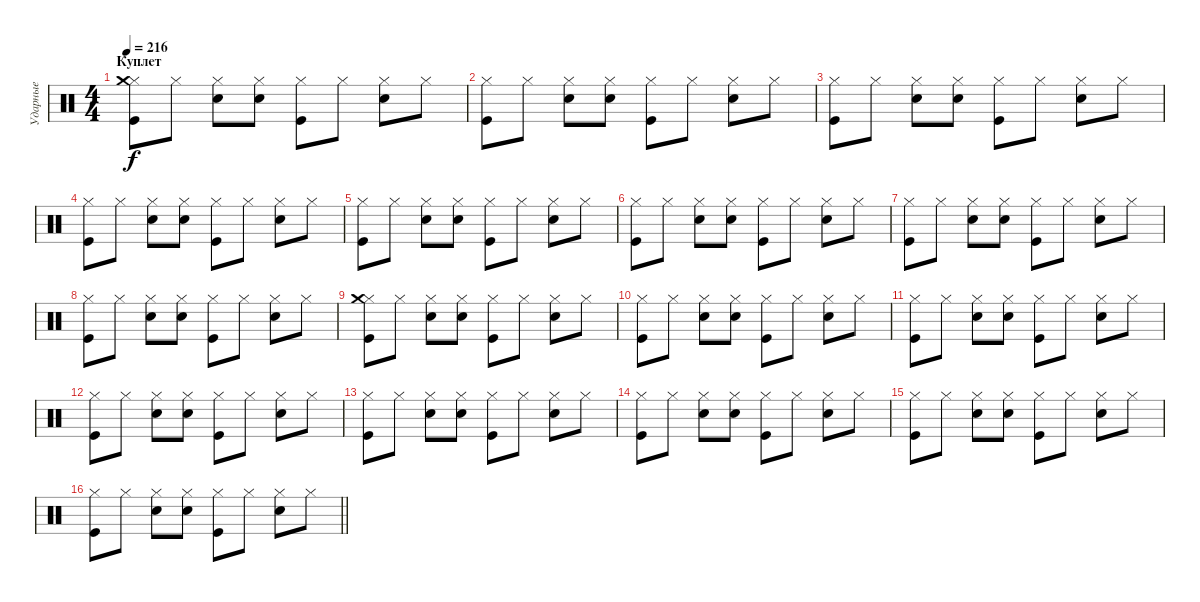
\track ("Ударные" "Ударные") {instrument percussion}
\staff {score}
\articulation defaults
\ts (4 4)
\section ("" "Куплет")
\tempo 216
\clef neutral
\ks c
("Hi-Hat (closed)" "Kick (hit)" "Crash medium (hit)").8{dy f} "Hi-Hat (closed)".8 ("Hi-Hat (closed)" "Snare (hit) 2").8 ("Hi-Hat (closed)" "Snare (hit) 2").8 ("Hi-Hat (closed)" "Kick (hit)").8 "Hi-Hat (closed)".8 ("Hi-Hat (closed)" "Snare (hit) 2").8 "Hi-Hat (closed)".8 |
("Hi-Hat (closed)" "Kick (hit)").8 "Hi-Hat (closed)".8 ("Hi-Hat (closed)" "Snare (hit) 2").8 ("Hi-Hat (closed)" "Snare (hit) 2").8 ("Hi-Hat (closed)" "Kick (hit)").8 "Hi-Hat (closed)".8 ("Hi-Hat (closed)" "Snare (hit) 2").8 "Hi-Hat (closed)".8 |
("Hi-Hat (closed)" "Kick (hit)").8 "Hi-Hat (closed)".8 ("Hi-Hat (closed)" "Snare (hit) 2").8 ("Hi-Hat (closed)" "Snare (hit) 2").8 ("Hi-Hat (closed)" "Kick (hit)").8 "Hi-Hat (closed)".8 ("Hi-Hat (closed)" "Snare (hit) 2").8 "Hi-Hat (closed)".8 |
("Hi-Hat (closed)" "Kick (hit)").8 "Hi-Hat (closed)".8 ("Hi-Hat (closed)" "Snare (hit) 2").8 ("Hi-Hat (closed)" "Snare (hit) 2").8 ("Hi-Hat (closed)" "Kick (hit)").8 "Hi-Hat (closed)".8 ("Hi-Hat (closed)" "Snare (hit) 2").8 "Hi-Hat (closed)".8 |
("Hi-Hat (closed)" "Kick (hit)").8 "Hi-Hat (closed)".8 ("Hi-Hat (closed)" "Snare (hit) 2").8 ("Hi-Hat (closed)" "Snare (hit) 2").8 ("Hi-Hat (closed)" "Kick (hit)").8 "Hi-Hat (closed)".8 ("Hi-Hat (closed)" "Snare (hit) 2").8 "Hi-Hat (closed)".8 |
("Hi-Hat (closed)" "Kick (hit)").8 "Hi-Hat (closed)".8 ("Hi-Hat (closed)" "Snare (hit) 2").8 ("Hi-Hat (closed)" "Snare (hit) 2").8 ("Hi-Hat (closed)" "Kick (hit)").8 "Hi-Hat (closed)".8 ("Hi-Hat (closed)" "Snare (hit) 2").8 "Hi-Hat (closed)".8 |
("Hi-Hat (closed)" "Kick (hit)").8 "Hi-Hat (closed)".8 ("Hi-Hat (closed)" "Snare (hit) 2").8 ("Hi-Hat (closed)" "Snare (hit) 2").8 ("Hi-Hat (closed)" "Kick (hit)").8 "Hi-Hat (closed)".8 ("Hi-Hat (closed)" "Snare (hit) 2").8 "Hi-Hat (closed)".8 |
("Hi-Hat (closed)" "Kick (hit)").8 "Hi-Hat (closed)".8 ("Hi-Hat (closed)" "Snare (hit) 2").8 ("Hi-Hat (closed)" "Snare (hit) 2").8 ("Hi-Hat (closed)" "Kick (hit)").8 "Hi-Hat (closed)".8 ("Hi-Hat (closed)" "Snare (hit) 2").8 "Hi-Hat (closed)".8 |
("Hi-Hat (closed)" "Kick (hit)" "Crash medium (hit)").8 "Hi-Hat (closed)".8 ("Hi-Hat (closed)" "Snare (hit) 2").8 ("Hi-Hat (closed)" "Snare (hit) 2").8 ("Hi-Hat (closed)" "Kick (hit)").8 "Hi-Hat (closed)".8 ("Hi-Hat (closed)" "Snare (hit) 2").8 "Hi-Hat (closed)".8 |
("Hi-Hat (closed)" "Kick (hit)").8 "Hi-Hat (closed)".8 ("Hi-Hat (closed)" "Snare (hit) 2").8 ("Hi-Hat (closed)" "Snare (hit) 2").8 ("Hi-Hat (closed)" "Kick (hit)").8 "Hi-Hat (closed)".8 ("Hi-Hat (closed)" "Snare (hit) 2").8 "Hi-Hat (closed)".8 |
("Hi-Hat (closed)" "Kick (hit)").8 "Hi-Hat (closed)".8 ("Hi-Hat (closed)" "Snare (hit) 2").8 ("Hi-Hat (closed)" "Snare (hit) 2").8 ("Hi-Hat (closed)" "Kick (hit)").8 "Hi-Hat (closed)".8 ("Hi-Hat (closed)" "Snare (hit) 2").8 "Hi-Hat (closed)".8 |
("Hi-Hat (closed)" "Kick (hit)").8 "Hi-Hat (closed)".8 ("Hi-Hat (closed)" "Snare (hit) 2").8 ("Hi-Hat (closed)" "Snare (hit) 2").8 ("Hi-Hat (closed)" "Kick (hit)").8 "Hi-Hat (closed)".8 ("Hi-Hat (closed)" "Snare (hit) 2").8 "Hi-Hat (closed)".8 |
("Hi-Hat (closed)" "Kick (hit)").8 "Hi-Hat (closed)".8 ("Hi-Hat (closed)" "Snare (hit) 2").8 ("Hi-Hat (closed)" "Snare (hit) 2").8 ("Hi-Hat (closed)" "Kick (hit)").8 "Hi-Hat (closed)".8 ("Hi-Hat (closed)" "Snare (hit) 2").8 "Hi-Hat (closed)".8 |
("Hi-Hat (closed)" "Kick (hit)").8 "Hi-Hat (closed)".8 ("Hi-Hat (closed)" "Snare (hit) 2").8 ("Hi-Hat (closed)" "Snare (hit) 2").8 ("Hi-Hat (closed)" "Kick (hit)").8 "Hi-Hat (closed)".8 ("Hi-Hat (closed)" "Snare (hit) 2").8 "Hi-Hat (closed)".8 |
("Hi-Hat (closed)" "Kick (hit)").8 "Hi-Hat (closed)".8 ("Hi-Hat (closed)" "Snare (hit) 2").8 ("Hi-Hat (closed)" "Snare (hit) 2").8 ("Hi-Hat (closed)" "Kick (hit)").8 "Hi-Hat (closed)".8 ("Hi-Hat (closed)" "Snare (hit) 2").8 "Hi-Hat (closed)".8 |
\barLineRight lightlight
("Hi-Hat (closed)" "Kick (hit)").8 "Hi-Hat (closed)".8 ("Hi-Hat (closed)" "Snare (hit) 2").8 ("Hi-Hat (closed)" "Snare (hit) 2").8 ("Hi-Hat (closed)" "Kick (hit)").8 "Hi-Hat (closed)".8 ("Hi-Hat (closed)" "Snare (hit) 2").8 "Hi-Hat (closed)".8
